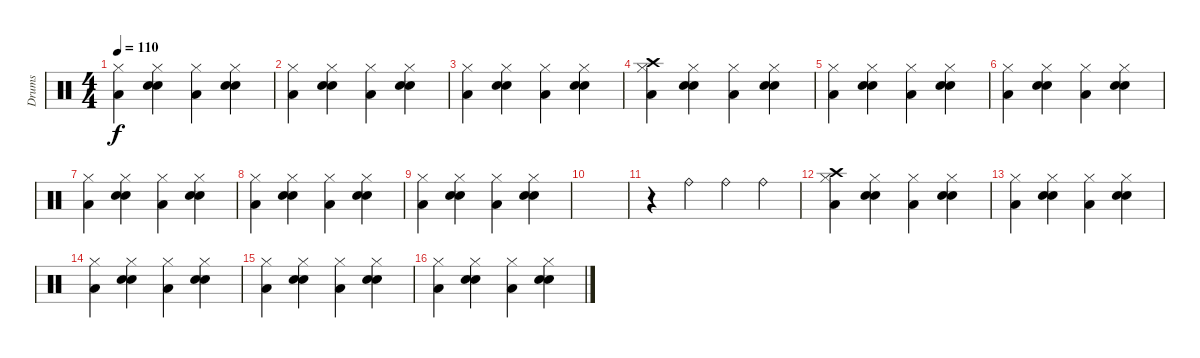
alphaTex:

\track ("Drums" "Drums") {instrument percussion}
\staff {score}
\articulation defaults
\ts (4 4)
\tempo 110
\clef neutral
\ks c
("Hi-Hat (closed)" "Low Tom (hit)").4{dy f} ("Hi-Hat (closed)" "Electric Snare (hit)" "Snare (hit) 2").4 ("Hi-Hat (closed)" "Low Tom (hit)").4 ("Hi-Hat (closed)" "Electric Snare (hit)" "Snare (hit) 2").4 |
("Hi-Hat (closed)" "Low Tom (hit)").4 ("Hi-Hat (closed)" "Electric Snare (hit)" "Snare (hit) 2").4 ("Hi-Hat (closed)" "Low Tom (hit)").4 ("Hi-Hat (closed)" "Electric Snare (hit)" "Snare (hit) 2").4 |
("Hi-Hat (closed)" "Low Tom (hit)").4 ("Hi-Hat (closed)" "Electric Snare (hit)" "Snare (hit) 2").4 ("Hi-Hat (closed)" "Low Tom (hit)").4 ("Hi-Hat (closed)" "Electric Snare (hit)" "Snare (hit) 2").4 |
("Hi-Hat (closed)" "Low Tom (hit)" "Crash high (hit)").4 ("Hi-Hat (closed)" "Electric Snare (hit)" "Snare (hit) 2").4 ("Hi-Hat (closed)" "Low Tom (hit)").4 ("Hi-Hat (closed)" "Electric Snare (hit)" "Snare (hit) 2").4 |
("Hi-Hat (closed)" "Low Tom (hit)").4 ("Hi-Hat (closed)" "Electric Snare (hit)" "Snare (hit) 2").4 ("Hi-Hat (closed)" "Low Tom (hit)").4 ("Hi-Hat (closed)" "Electric Snare (hit)" "Snare (hit) 2").4 |
("Hi-Hat (closed)" "Low Tom (hit)").4 ("Hi-Hat (closed)" "Electric Snare (hit)" "Snare (hit) 2").4 ("Hi-Hat (closed)" "Low Tom (hit)").4 ("Hi-Hat (closed)" "Electric Snare (hit)" "Snare (hit) 2").4 |
("Hi-Hat (closed)" "Low Tom (hit)").4 ("Hi-Hat (closed)" "Electric Snare (hit)" "Snare (hit) 2").4 ("Hi-Hat (closed)" "Low Tom (hit)").4 ("Hi-Hat (closed)" "Electric Snare (hit)" "Snare (hit) 2").4 |
("Hi-Hat (closed)" "Low Tom (hit)").4 ("Hi-Hat (closed)" "Electric Snare (hit)" "Snare (hit) 2").4 ("Hi-Hat (closed)" "Low Tom (hit)").4 ("Hi-Hat (closed)" "Electric Snare (hit)" "Snare (hit) 2").4 |
("Hi-Hat (closed)" "Low Tom (hit)").4 ("Hi-Hat (closed)" "Electric Snare (hit)" "Snare (hit) 2").4 ("Hi-Hat (closed)" "Low Tom (hit)").4 ("Hi-Hat (closed)" "Electric Snare (hit)" "Snare (hit) 2").4 |
|
r.4 "Ride (bell)".4 "Ride (bell)".4 "Ride (bell)".4 |
("Hi-Hat (closed)" "Low Tom (hit)" "Crash high (hit)").4 ("Hi-Hat (closed)" "Electric Snare (hit)" "Snare (hit) 2").4 ("Hi-Hat (closed)" "Low Tom (hit)").4 ("Hi-Hat (closed)" "Electric Snare (hit)" "Snare (hit) 2").4 |
("Hi-Hat (closed)" "Low Tom (hit)").4 ("Hi-Hat (closed)" "Electric Snare (hit)" "Snare (hit) 2").4 ("Hi-Hat (closed)" "Low Tom (hit)").4 ("Hi-Hat (closed)" "Electric Snare (hit)" "Snare (hit) 2").4 |
("Hi-Hat (closed)" "Low Tom (hit)").4 ("Hi-Hat (closed)" "Electric Snare (hit)" "Snare (hit) 2").4 ("Hi-Hat (closed)" "Low Tom (hit)").4 ("Hi-Hat (closed)" "Electric Snare (hit)" "Snare (hit) 2").4 |
("Hi-Hat (closed)" "Low Tom (hit)").4 ("Hi-Hat (closed)" "Electric Snare (hit)" "Snare (hit) 2").4 ("Hi-Hat (closed)" "Low Tom (hit)").4 ("Hi-Hat (closed)" "Electric Snare (hit)" "Snare (hit) 2").4 |
("Hi-Hat (closed)" "Low Tom (hit)").4 ("Hi-Hat (closed)" "Electric Snare (hit)" "Snare (hit) 2").4 ("Hi-Hat (closed)" "Low Tom (hit)").4 ("Hi-Hat (closed)" "Electric Snare (hit)" "Snare (hit) 2").4
